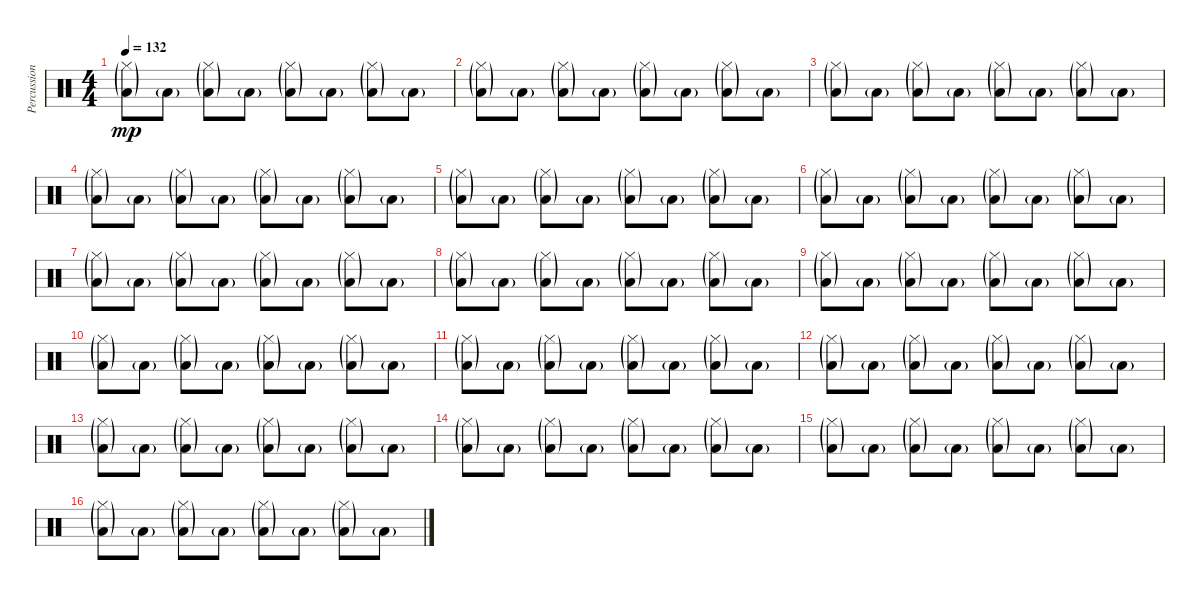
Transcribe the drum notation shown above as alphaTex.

\track ("Percussions" "Percussion") {instrument percussion}
\staff {score}
\articulation defaults
\ts (4 4)
\tempo 132
\clef neutral
\ks c
("Hi-Hat (closed)"{g} "Low Floor Tom (hit)"{g}).8{dy mp} "Low Floor Tom (hit)"{g}.8 ("Hi-Hat (closed)"{g} "Low Floor Tom (hit)"{g}).8 "Low Floor Tom (hit)"{g}.8 ("Hi-Hat (closed)"{g} "Low Floor Tom (hit)"{g}).8 "Low Floor Tom (hit)"{g}.8 ("Hi-Hat (closed)"{g} "Low Floor Tom (hit)"{g}).8 "Low Floor Tom (hit)"{g}.8 |
("Hi-Hat (closed)"{g} "Low Floor Tom (hit)"{g}).8 "Low Floor Tom (hit)"{g}.8 ("Hi-Hat (closed)"{g} "Low Floor Tom (hit)"{g}).8 "Low Floor Tom (hit)"{g}.8 ("Hi-Hat (closed)"{g} "Low Floor Tom (hit)"{g}).8 "Low Floor Tom (hit)"{g}.8 ("Hi-Hat (closed)"{g} "Low Floor Tom (hit)"{g}).8 "Low Floor Tom (hit)"{g}.8 |
("Hi-Hat (closed)"{g} "Low Floor Tom (hit)"{g}).8 "Low Floor Tom (hit)"{g}.8 ("Hi-Hat (closed)"{g} "Low Floor Tom (hit)"{g}).8 "Low Floor Tom (hit)"{g}.8 ("Hi-Hat (closed)"{g} "Low Floor Tom (hit)"{g}).8 "Low Floor Tom (hit)"{g}.8 ("Hi-Hat (closed)"{g} "Low Floor Tom (hit)"{g}).8 "Low Floor Tom (hit)"{g}.8 |
("Hi-Hat (closed)"{g} "Low Floor Tom (hit)"{g}).8 "Low Floor Tom (hit)"{g}.8 ("Hi-Hat (closed)"{g} "Low Floor Tom (hit)"{g}).8 "Low Floor Tom (hit)"{g}.8 ("Hi-Hat (closed)"{g} "Low Floor Tom (hit)"{g}).8 "Low Floor Tom (hit)"{g}.8 ("Hi-Hat (closed)"{g} "Low Floor Tom (hit)"{g}).8 "Low Floor Tom (hit)"{g}.8 |
("Hi-Hat (closed)"{g} "Low Floor Tom (hit)"{g}).8 "Low Floor Tom (hit)"{g}.8 ("Hi-Hat (closed)"{g} "Low Floor Tom (hit)"{g}).8 "Low Floor Tom (hit)"{g}.8 ("Hi-Hat (closed)"{g} "Low Floor Tom (hit)"{g}).8 "Low Floor Tom (hit)"{g}.8 ("Hi-Hat (closed)"{g} "Low Floor Tom (hit)"{g}).8 "Low Floor Tom (hit)"{g}.8 |
("Hi-Hat (closed)"{g} "Low Floor Tom (hit)"{g}).8 "Low Floor Tom (hit)"{g}.8 ("Hi-Hat (closed)"{g} "Low Floor Tom (hit)"{g}).8 "Low Floor Tom (hit)"{g}.8 ("Hi-Hat (closed)"{g} "Low Floor Tom (hit)"{g}).8 "Low Floor Tom (hit)"{g}.8 ("Hi-Hat (closed)"{g} "Low Floor Tom (hit)"{g}).8 "Low Floor Tom (hit)"{g}.8 |
("Hi-Hat (closed)"{g} "Low Floor Tom (hit)"{g}).8 "Low Floor Tom (hit)"{g}.8 ("Hi-Hat (closed)"{g} "Low Floor Tom (hit)"{g}).8 "Low Floor Tom (hit)"{g}.8 ("Hi-Hat (closed)"{g} "Low Floor Tom (hit)"{g}).8 "Low Floor Tom (hit)"{g}.8 ("Hi-Hat (closed)"{g} "Low Floor Tom (hit)"{g}).8 "Low Floor Tom (hit)"{g}.8 |
("Hi-Hat (closed)"{g} "Low Floor Tom (hit)"{g}).8 "Low Floor Tom (hit)"{g}.8 ("Hi-Hat (closed)"{g} "Low Floor Tom (hit)"{g}).8 "Low Floor Tom (hit)"{g}.8 ("Hi-Hat (closed)"{g} "Low Floor Tom (hit)"{g}).8 "Low Floor Tom (hit)"{g}.8 ("Hi-Hat (closed)"{g} "Low Floor Tom (hit)"{g}).8 "Low Floor Tom (hit)"{g}.8 |
("Hi-Hat (closed)"{g} "Low Floor Tom (hit)"{g}).8 "Low Floor Tom (hit)"{g}.8 ("Hi-Hat (closed)"{g} "Low Floor Tom (hit)"{g}).8 "Low Floor Tom (hit)"{g}.8 ("Hi-Hat (closed)"{g} "Low Floor Tom (hit)"{g}).8 "Low Floor Tom (hit)"{g}.8 ("Hi-Hat (closed)"{g} "Low Floor Tom (hit)"{g}).8 "Low Floor Tom (hit)"{g}.8 |
("Hi-Hat (closed)"{g} "Low Floor Tom (hit)"{g}).8 "Low Floor Tom (hit)"{g}.8 ("Hi-Hat (closed)"{g} "Low Floor Tom (hit)"{g}).8 "Low Floor Tom (hit)"{g}.8 ("Hi-Hat (closed)"{g} "Low Floor Tom (hit)"{g}).8 "Low Floor Tom (hit)"{g}.8 ("Hi-Hat (closed)"{g} "Low Floor Tom (hit)"{g}).8 "Low Floor Tom (hit)"{g}.8 |
("Hi-Hat (closed)"{g} "Low Floor Tom (hit)"{g}).8 "Low Floor Tom (hit)"{g}.8 ("Hi-Hat (closed)"{g} "Low Floor Tom (hit)"{g}).8 "Low Floor Tom (hit)"{g}.8 ("Hi-Hat (closed)"{g} "Low Floor Tom (hit)"{g}).8 "Low Floor Tom (hit)"{g}.8 ("Hi-Hat (closed)"{g} "Low Floor Tom (hit)"{g}).8 "Low Floor Tom (hit)"{g}.8 |
("Hi-Hat (closed)"{g} "Low Floor Tom (hit)"{g}).8 "Low Floor Tom (hit)"{g}.8 ("Hi-Hat (closed)"{g} "Low Floor Tom (hit)"{g}).8 "Low Floor Tom (hit)"{g}.8 ("Hi-Hat (closed)"{g} "Low Floor Tom (hit)"{g}).8 "Low Floor Tom (hit)"{g}.8 ("Hi-Hat (closed)"{g} "Low Floor Tom (hit)"{g}).8 "Low Floor Tom (hit)"{g}.8 |
("Hi-Hat (closed)"{g} "Low Floor Tom (hit)"{g}).8 "Low Floor Tom (hit)"{g}.8 ("Hi-Hat (closed)"{g} "Low Floor Tom (hit)"{g}).8 "Low Floor Tom (hit)"{g}.8 ("Hi-Hat (closed)"{g} "Low Floor Tom (hit)"{g}).8 "Low Floor Tom (hit)"{g}.8 ("Hi-Hat (closed)"{g} "Low Floor Tom (hit)"{g}).8 "Low Floor Tom (hit)"{g}.8 |
("Hi-Hat (closed)"{g} "Low Floor Tom (hit)"{g}).8 "Low Floor Tom (hit)"{g}.8 ("Hi-Hat (closed)"{g} "Low Floor Tom (hit)"{g}).8 "Low Floor Tom (hit)"{g}.8 ("Hi-Hat (closed)"{g} "Low Floor Tom (hit)"{g}).8 "Low Floor Tom (hit)"{g}.8 ("Hi-Hat (closed)"{g} "Low Floor Tom (hit)"{g}).8 "Low Floor Tom (hit)"{g}.8 |
("Hi-Hat (closed)"{g} "Low Floor Tom (hit)"{g}).8 "Low Floor Tom (hit)"{g}.8 ("Hi-Hat (closed)"{g} "Low Floor Tom (hit)"{g}).8 "Low Floor Tom (hit)"{g}.8 ("Hi-Hat (closed)"{g} "Low Floor Tom (hit)"{g}).8 "Low Floor Tom (hit)"{g}.8 ("Hi-Hat (closed)"{g} "Low Floor Tom (hit)"{g}).8 "Low Floor Tom (hit)"{g}.8 |
("Hi-Hat (closed)"{g} "Low Floor Tom (hit)"{g}).8 "Low Floor Tom (hit)"{g}.8 ("Hi-Hat (closed)"{g} "Low Floor Tom (hit)"{g}).8 "Low Floor Tom (hit)"{g}.8 ("Hi-Hat (closed)"{g} "Low Floor Tom (hit)"{g}).8 "Low Floor Tom (hit)"{g}.8 ("Hi-Hat (closed)"{g} "Low Floor Tom (hit)"{g}).8 "Low Floor Tom (hit)"{g}.8
